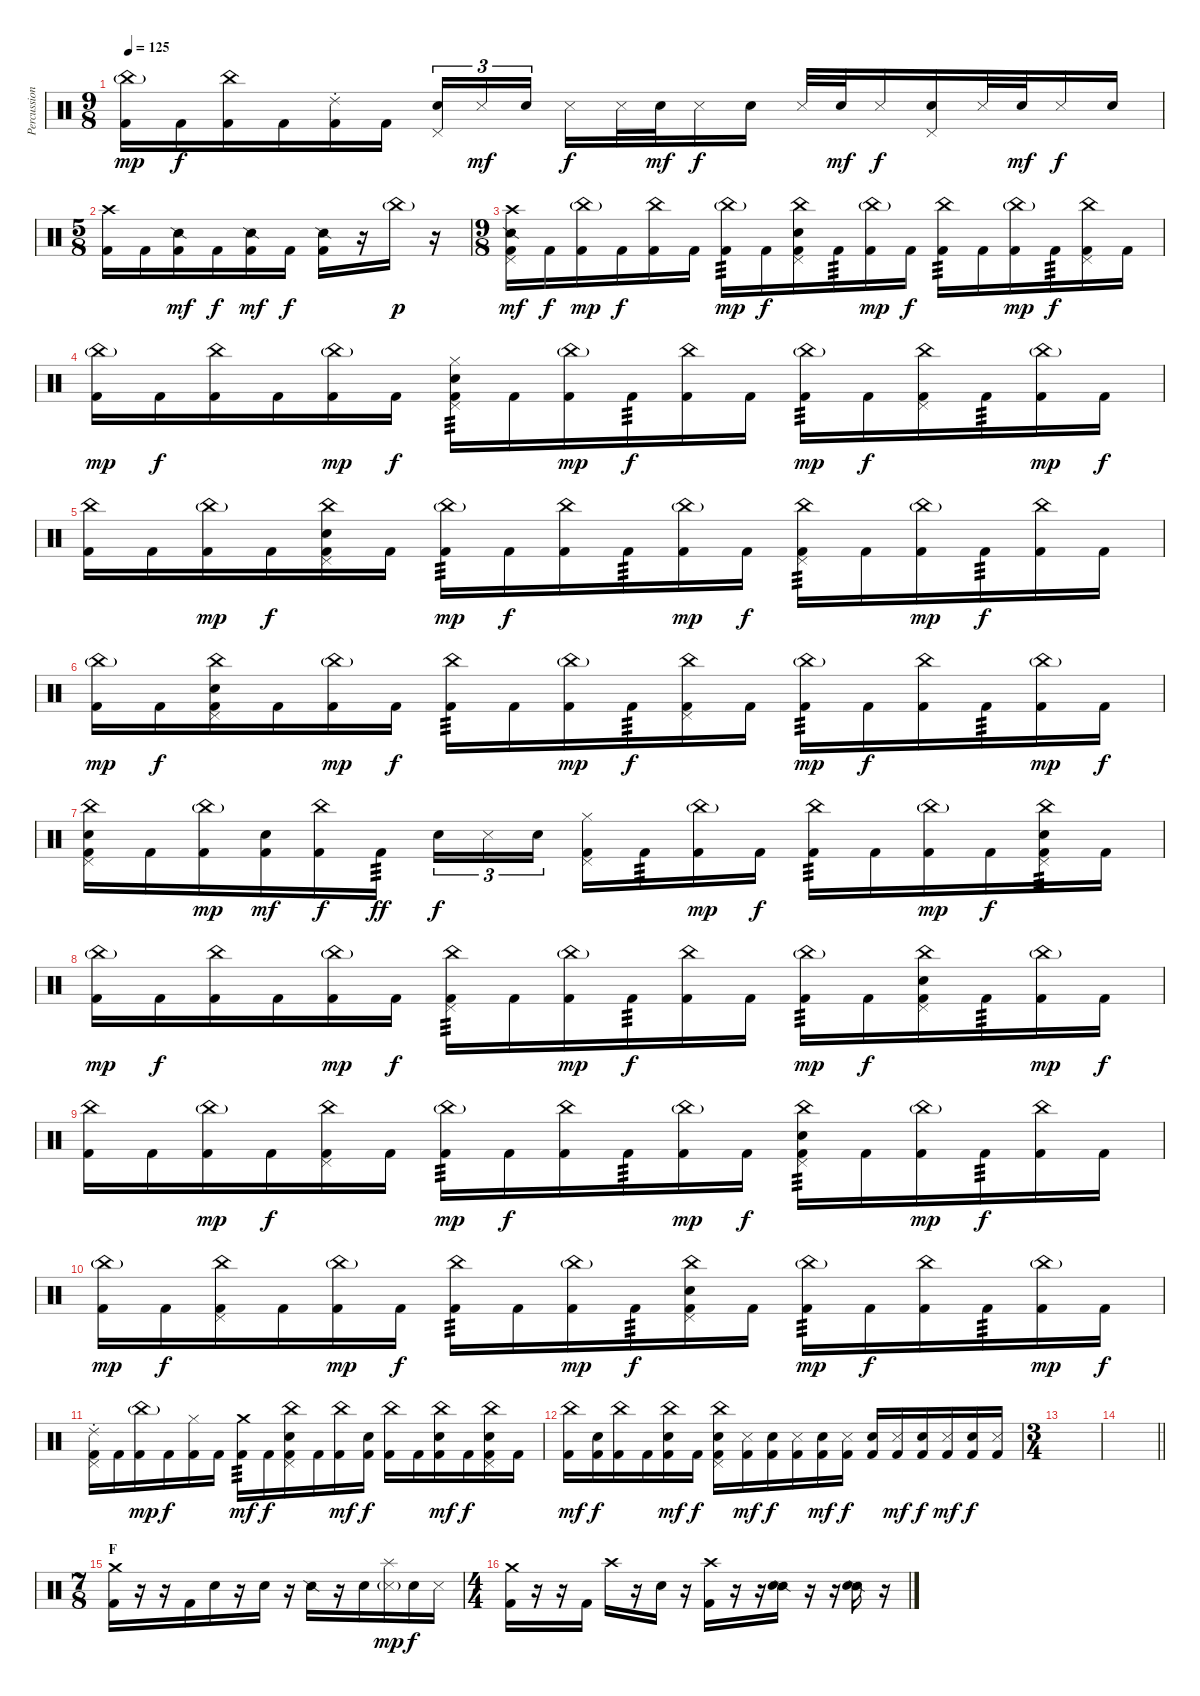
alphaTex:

\track ("Percussion" "Percussion") {instrument percussion}
\staff {score}
\articulation defaults
\ts (9 8)
\tempo 125
\clef neutral
\ks c
("China (hit)"{g} "Kick (hit) 2").16{dy mp} "Kick (hit) 2".16{dy f} ("China (hit)" "Kick (hit) 2").16 "Kick (hit) 2".16 ("Ride (choke) 2" "Kick (hit) 2").16 "Kick (hit) 2".16 ("Pedal Hi-Hat (hit)" "Snare (hit) 2").16{tu (3 2)} "Metronome (hit)".16{tu (3 2) dy mf} "Snare (hit) 2".16{tu (3 2) beam splitsecondary} "Metronome (hit)".16{dy f} "Metronome (hit)".32 "Snare (hit) 2".32{dy mf} "Metronome (hit)".16{dy f} "Snare (hit) 2".16 "Metronome (hit)".32 "Snare (hit) 2".32{dy mf} "Metronome (hit)".16{dy f} ("Pedal Hi-Hat (hit)" "Snare (hit) 2").16 "Metronome (hit)".32 "Snare (hit) 2".32{dy mf} "Metronome (hit)".16{dy f} "Snare (hit) 2".16 |
\ts (5 8)
("Crash high (hit)" "Kick (hit) 2").16 "Kick (hit) 2".16 ("Snare (side stick) 2" "Kick (hit) 2").16{dy mf} "Kick (hit) 2".16{dy f} ("Snare (side stick) 2" "Kick (hit) 2").16{dy mf} "Kick (hit) 2".16{dy f} ("Snare (side stick) 2" "Kick (hit) 2").16 r.16 "China (hit)"{g}.16{dy p} r.16 |
\ts (9 8)
("Snare (side stick) 2" "Crash high (hit)" "Pedal Hi-Hat (hit)" "Kick (hit) 2").16{dy mf} "Kick (hit) 2".16{dy f} ("China (hit)"{g} "Kick (hit) 2").16{dy mp} "Kick (hit) 2".16{dy f} ("China (hit)" "Kick (hit) 2").16 "Kick (hit) 2".16 ("China (hit)"{g} "Kick (hit) 2").16{tp 3 dy mp} "Kick (hit) 2".16{dy f} ("China (hit)" "Pedal Hi-Hat (hit)" "Snare (hit) 2" "Kick (hit) 2").16 "Kick (hit) 2".16{tp 3} ("China (hit)"{g} "Kick (hit) 2").16{dy mp} "Kick (hit) 2".16{dy f} ("China (hit)" "Kick (hit) 2").16{tp 3} "Kick (hit) 2".16 ("China (hit)"{g} "Kick (hit) 2").16{dy mp} "Kick (hit) 2".16{tp 3 dy f} ("China (hit)" "Pedal Hi-Hat (hit)" "Kick (hit) 2").16 "Kick (hit) 2".16 |
("China (hit)"{g} "Kick (hit) 2").16{dy mp} "Kick (hit) 2".16{dy f} ("China (hit)" "Kick (hit) 2").16 "Kick (hit) 2".16 ("China (hit)"{g} "Kick (hit) 2").16{dy mp} "Kick (hit) 2".16{dy f} ("Hi-Hat (closed)" "Pedal Hi-Hat (hit)" "Snare (hit) 2" "Kick (hit) 2").16{tp 3} "Kick (hit) 2".16 ("China (hit)"{g} "Kick (hit) 2").16{dy mp} "Kick (hit) 2".16{tp 3 dy f} ("China (hit)" "Kick (hit) 2").16 "Kick (hit) 2".16 ("China (hit)"{g} "Kick (hit) 2").16{tp 3 dy mp} "Kick (hit) 2".16{dy f} ("China (hit)" "Pedal Hi-Hat (hit)" "Kick (hit) 2").16 "Kick (hit) 2".16{tp 3} ("China (hit)"{g} "Kick (hit) 2").16{dy mp} "Kick (hit) 2".16{dy f} |
("China (hit)" "Kick (hit) 2").16 "Kick (hit) 2".16 ("China (hit)"{g} "Kick (hit) 2").16{dy mp} "Kick (hit) 2".16{dy f} ("China (hit)" "Pedal Hi-Hat (hit)" "Snare (hit) 2" "Kick (hit) 2").16 "Kick (hit) 2".16 ("China (hit)"{g} "Kick (hit) 2").16{tp 3 dy mp} "Kick (hit) 2".16{dy f} ("China (hit)" "Kick (hit) 2").16 "Kick (hit) 2".16{tp 3} ("China (hit)"{g} "Kick (hit) 2").16{dy mp} "Kick (hit) 2".16{dy f} ("China (hit)" "Pedal Hi-Hat (hit)" "Kick (hit) 2").16{tp 3} "Kick (hit) 2".16 ("China (hit)"{g} "Kick (hit) 2").16{dy mp} "Kick (hit) 2".16{tp 3 dy f} ("China (hit)" "Kick (hit) 2").16 "Kick (hit) 2".16 |
("China (hit)"{g} "Kick (hit) 2").16{dy mp} "Kick (hit) 2".16{dy f} ("China (hit)" "Pedal Hi-Hat (hit)" "Snare (hit) 2" "Kick (hit) 2").16 "Kick (hit) 2".16 ("China (hit)"{g} "Kick (hit) 2").16{dy mp} "Kick (hit) 2".16{dy f} ("China (hit)" "Kick (hit) 2").16{tp 3} "Kick (hit) 2".16 ("China (hit)"{g} "Kick (hit) 2").16{dy mp} "Kick (hit) 2".16{tp 3 dy f} ("China (hit)" "Pedal Hi-Hat (hit)" "Kick (hit) 2").16 "Kick (hit) 2".16 ("China (hit)"{g} "Kick (hit) 2").16{tp 3 dy mp} "Kick (hit) 2".16{dy f} ("China (hit)" "Kick (hit) 2").16 "Kick (hit) 2".16{tp 3} ("China (hit)"{g} "Kick (hit) 2").16{dy mp} "Kick (hit) 2".16{dy f} |
("China (hit)" "Pedal Hi-Hat (hit)" "Snare (hit) 2" "Kick (hit) 2").16 "Kick (hit) 2".16 ("China (hit)"{g} "Kick (hit) 2").16{dy mp} ("Snare (hit) 2" "Kick (hit) 2").16{dy mf} ("China (hit)" "Kick (hit) 2").16{dy f} "Kick (hit) 2".16{tp 3 dy ff} "Snare (hit) 2".16{tu (3 2) dy f} "Metronome (hit)".16{tu (3 2)} "Snare (hit) 2".16{tu (3 2) beam splitsecondary} ("Hi-Hat (closed)" "Pedal Hi-Hat (hit)" "Kick (hit) 2").16 "Kick (hit) 2".16{tp 3} ("China (hit)"{g} "Kick (hit) 2").16{dy mp} "Kick (hit) 2".16{dy f} ("China (hit)" "Kick (hit) 2").16{tp 3} "Kick (hit) 2".16 ("China (hit)"{g} "Kick (hit) 2").16{dy mp} "Kick (hit) 2".16{dy f} ("China (hit)" "Pedal Hi-Hat (hit)" "Snare (hit) 2" "Kick (hit) 2").16{tp 3} "Kick (hit) 2".16 |
("China (hit)"{g} "Kick (hit) 2").16{dy mp} "Kick (hit) 2".16{dy f} ("China (hit)" "Kick (hit) 2").16 "Kick (hit) 2".16 ("China (hit)"{g} "Kick (hit) 2").16{dy mp} "Kick (hit) 2".16{dy f} ("China (hit)" "Pedal Hi-Hat (hit)" "Kick (hit) 2").16{tp 3} "Kick (hit) 2".16 ("China (hit)"{g} "Kick (hit) 2").16{dy mp} "Kick (hit) 2".16{tp 3 dy f} ("China (hit)" "Kick (hit) 2").16 "Kick (hit) 2".16 ("China (hit)"{g} "Kick (hit) 2").16{tp 3 dy mp} "Kick (hit) 2".16{dy f} ("China (hit)" "Pedal Hi-Hat (hit)" "Snare (hit) 2" "Kick (hit) 2").16 "Kick (hit) 2".16{tp 3} ("China (hit)"{g} "Kick (hit) 2").16{dy mp} "Kick (hit) 2".16{dy f} |
("China (hit)" "Kick (hit) 2").16 "Kick (hit) 2".16 ("China (hit)"{g} "Kick (hit) 2").16{dy mp} "Kick (hit) 2".16{dy f} ("China (hit)" "Pedal Hi-Hat (hit)" "Kick (hit) 2").16 "Kick (hit) 2".16 ("China (hit)"{g} "Kick (hit) 2").16{tp 3 dy mp} "Kick (hit) 2".16{dy f} ("China (hit)" "Kick (hit) 2").16 "Kick (hit) 2".16{tp 3} ("China (hit)"{g} "Kick (hit) 2").16{dy mp} "Kick (hit) 2".16{dy f} ("China (hit)" "Pedal Hi-Hat (hit)" "Snare (hit) 2" "Kick (hit) 2").16{tp 3} "Kick (hit) 2".16 ("China (hit)"{g} "Kick (hit) 2").16{dy mp} "Kick (hit) 2".16{tp 3 dy f} ("China (hit)" "Kick (hit) 2").16 "Kick (hit) 2".16 |
("China (hit)"{g} "Kick (hit) 2").16{dy mp} "Kick (hit) 2".16{dy f} ("China (hit)" "Pedal Hi-Hat (hit)" "Kick (hit) 2").16 "Kick (hit) 2".16 ("China (hit)"{g} "Kick (hit) 2").16{dy mp} "Kick (hit) 2".16{dy f} ("China (hit)" "Kick (hit) 2").16{tp 3} "Kick (hit) 2".16 ("China (hit)"{g} "Kick (hit) 2").16{dy mp} "Kick (hit) 2".16{tp 3 dy f} ("China (hit)" "Pedal Hi-Hat (hit)" "Snare (hit) 2" "Kick (hit) 2").16 "Kick (hit) 2".16 ("China (hit)"{g} "Kick (hit) 2").16{tp 3 dy mp} "Kick (hit) 2".16{dy f} ("China (hit)" "Kick (hit) 2").16 "Kick (hit) 2".16{tp 3} ("China (hit)"{g} "Kick (hit) 2").16{dy mp} "Kick (hit) 2".16{dy f} |
("Ride (choke) 2" "Pedal Hi-Hat (hit)" "Kick (hit) 2").16 "Kick (hit) 2".16 ("China (hit)"{g} "Kick (hit) 2").16{dy mp} "Kick (hit) 2".16{dy f} ("Hi-Hat (closed)" "Kick (hit) 2").16 "Kick (hit) 2".16 ("Crash medium (hit)" "Kick (hit) 2").16{tp 3 dy mf} "Kick (hit) 2".16{dy f} ("China (hit)" "Pedal Hi-Hat (hit)" "Snare (hit) 2" "Kick (hit) 2").16 "Kick (hit) 2".16 ("China (hit)" "Kick (hit) 2").16{dy mf} ("Snare (hit) 2" "Kick (hit) 2").16{dy f} ("China (hit)" "Kick (hit) 2").16 "Kick (hit) 2".16 ("China (hit)" "Snare (hit) 2" "Kick (hit) 2").16{dy mf} "Kick (hit) 2".16{dy f} ("China (hit)" "Pedal Hi-Hat (hit)" "Snare (hit) 2" "Kick (hit) 2").16 "Kick (hit) 2".16 |
("China (hit)" "Kick (hit) 2").16{dy mf} ("Snare (hit) 2" "Kick (hit) 2").16{dy f} ("China (hit)" "Kick (hit) 2").16 "Kick (hit) 2".16 ("China (hit)" "Snare (hit) 2" "Kick (hit) 2").16{dy mf} "Kick (hit) 2".16{dy f} ("China (hit)" "Pedal Hi-Hat (hit)" "Snare (hit) 2" "Kick (hit) 2").16 ("Metronome (hit)" "Kick (hit) 2").16{dy mf} ("Snare (hit) 2" "Kick (hit) 2").16{dy f} ("Metronome (hit)" "Kick (hit) 2").16 ("Snare (hit) 2" "Kick (hit) 2").16{dy mf} ("Metronome (hit)" "Kick (hit) 2").16{dy f} ("Snare (hit) 2" "Kick (hit) 2").16 ("Metronome (hit)" "Kick (hit) 2").16{dy mf} ("Snare (hit) 2" "Kick (hit) 2").16{dy f} ("Metronome (hit)" "Kick (hit) 2").16{dy mf} ("Snare (hit) 2" "Kick (hit) 2").16{dy f} ("Metronome (hit)" "Kick (hit) 2").16 |
\ts (3 4)
|
\barLineRight lightlight
|
\ts (7 8)
\section ("" "F")
("Crash medium (hit)" "Kick (hit) 2").16 r.16 r.16 "Kick (hit) 2".16 "Snare (hit)".16 r.16 "Snare (hit) 2".16 r.16 "Snare (side stick) 2".16 r.16 "Snare (hit) 2".16 ("Splash (hit)" "Metronome (hit)"{g}).16{dy mp} "Snare (hit) 2".16{dy f} "Metronome (hit)".16 |
\ts (4 4)
("Crash medium (hit)" "Kick (hit) 2").16 r.16 r.16 "Kick (hit) 2".16 "Crash high (hit)".16 r.16 "Snare (hit) 2".16 r.16 ("Crash high (hit)" "Kick (hit) 2").16 r.16 r.16 ("Snare (side stick) 2" "Snare (hit) 2").16 r.16 r.16 ("Snare (side stick) 2" "Snare (hit) 2").16 r.16
